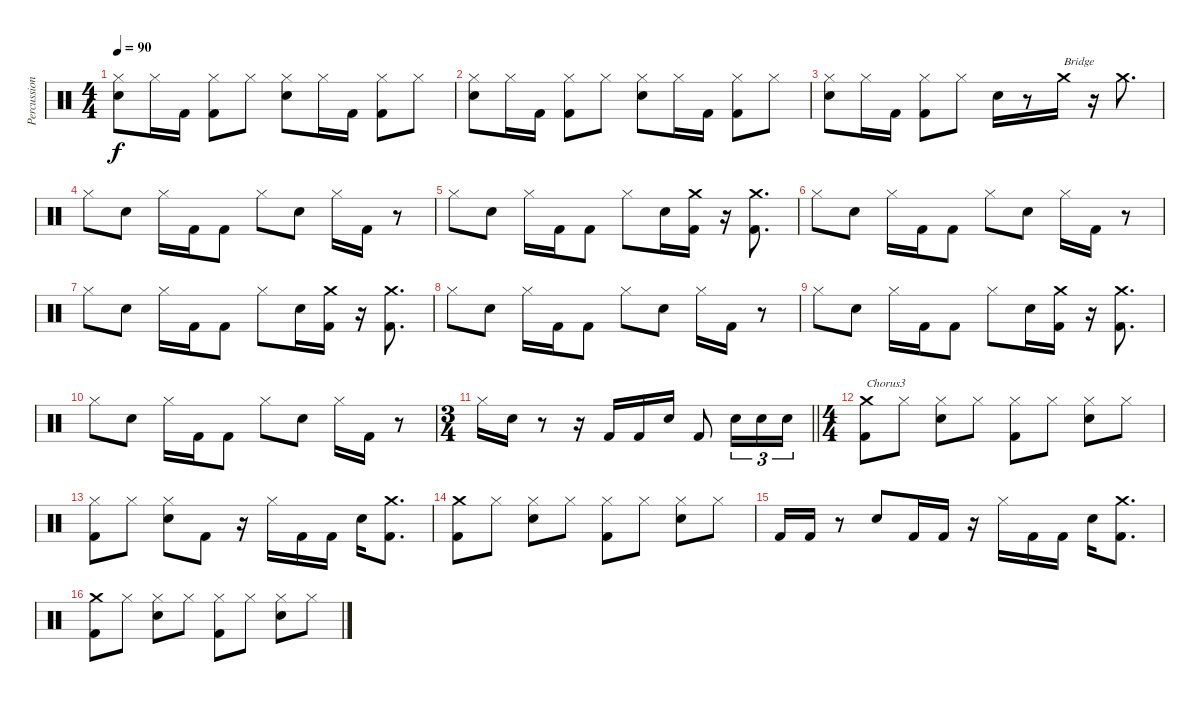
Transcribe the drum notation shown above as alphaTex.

\track ("Percussion" "Percussion") {instrument percussion}
\staff {score}
\articulation defaults
\ts (4 4)
\tempo 90
\clef neutral
\ks c
("Hi-Hat (closed)" "Snare (hit) 2").8{dy f} "Hi-Hat (closed)".16 "Kick (hit) 2".16 ("Hi-Hat (closed)" "Kick (hit) 2").8 "Hi-Hat (closed)".8 ("Hi-Hat (closed)" "Snare (hit) 2").8 "Hi-Hat (closed)".16 "Kick (hit) 2".16 ("Hi-Hat (closed)" "Kick (hit) 2").8 "Hi-Hat (closed)".8 |
("Hi-Hat (closed)" "Snare (hit) 2").8 "Hi-Hat (closed)".16 "Kick (hit) 2".16 ("Hi-Hat (closed)" "Kick (hit) 2").8 "Hi-Hat (closed)".8 ("Hi-Hat (closed)" "Snare (hit) 2").8 "Hi-Hat (closed)".16 "Kick (hit) 2".16 ("Hi-Hat (closed)" "Kick (hit) 2").8 "Hi-Hat (closed)".8 |
("Hi-Hat (closed)" "Snare (hit) 2").8 "Hi-Hat (closed)".16 "Kick (hit) 2".16 ("Hi-Hat (closed)" "Kick (hit) 2").8 "Hi-Hat (closed)".8 "Snare (hit) 2".16 r.8 "Crash medium (hit)".16{txt "Bridge"} r.16 "Crash medium (hit)".8{d} |
"Hi-Hat (closed)".8 "Snare (hit) 2".8 "Hi-Hat (closed)".16 "Kick (hit) 2".16 "Kick (hit) 2".8 "Hi-Hat (closed)".8 "Snare (hit) 2".8 "Hi-Hat (closed)".16 "Kick (hit) 2".16 r.8 |
"Hi-Hat (closed)".8 "Snare (hit) 2".8 "Hi-Hat (closed)".16 "Kick (hit) 2".16 "Kick (hit) 2".8 "Hi-Hat (closed)".8 "Snare (hit) 2".16 ("Crash medium (hit)" "Kick (hit) 2").16 r.16 ("Crash medium (hit)" "Kick (hit) 2").8{d} |
"Hi-Hat (closed)".8 "Snare (hit) 2".8 "Hi-Hat (closed)".16 "Kick (hit) 2".16 "Kick (hit) 2".8 "Hi-Hat (closed)".8 "Snare (hit) 2".8 "Hi-Hat (closed)".16 "Kick (hit) 2".16 r.8 |
"Hi-Hat (closed)".8 "Snare (hit) 2".8 "Hi-Hat (closed)".16 "Kick (hit) 2".16 "Kick (hit) 2".8 "Hi-Hat (closed)".8 "Snare (hit) 2".16 ("Crash medium (hit)" "Kick (hit) 2").16 r.16 ("Crash medium (hit)" "Kick (hit) 2").8{d} |
"Hi-Hat (closed)".8 "Snare (hit) 2".8 "Hi-Hat (closed)".16 "Kick (hit) 2".16 "Kick (hit) 2".8 "Hi-Hat (closed)".8 "Snare (hit) 2".8 "Hi-Hat (closed)".16 "Kick (hit) 2".16 r.8 |
"Hi-Hat (closed)".8 "Snare (hit) 2".8 "Hi-Hat (closed)".16 "Kick (hit) 2".16 "Kick (hit) 2".8 "Hi-Hat (closed)".8 "Snare (hit) 2".16 ("Crash medium (hit)" "Kick (hit) 2").16 r.16 ("Crash medium (hit)" "Kick (hit) 2").8{d} |
"Hi-Hat (closed)".8 "Snare (hit) 2".8 "Hi-Hat (closed)".16 "Kick (hit) 2".16 "Kick (hit) 2".8 "Hi-Hat (closed)".8 "Snare (hit) 2".8 "Hi-Hat (closed)".16 "Kick (hit) 2".16 r.8 |
\ts (3 4)
\barLineRight lightlight "Hi-Hat (closed)".16 "Snare (hit) 2".16
r.8 r.16 "Kick (hit) 2".16 "Kick (hit) 2".16 "Snare (hit) 2".16 "Kick (hit) 2".8 "Snare (hit) 2".16{tu (3 2)} "Snare (hit) 2".16{tu (3 2)} "Snare (hit) 2".16{tu (3 2)} |
\ts (4 4)
("Crash medium (hit)" "Kick (hit) 2").8{txt "Chorus3"} "Hi-Hat (closed)".8 ("Hi-Hat (closed)" "Snare (hit) 2").8 "Hi-Hat (closed)".8 ("Hi-Hat (closed)" "Kick (hit) 2").8 "Hi-Hat (closed)".8 ("Hi-Hat (closed)" "Snare (hit) 2").8 "Hi-Hat (closed)".8 |
("Hi-Hat (closed)" "Kick (hit) 2").8 "Hi-Hat (closed)".8 ("Hi-Hat (closed)" "Snare (hit) 2").8 "Kick (hit) 2".8 r.16 "Hi-Hat (closed)".16 "Kick (hit) 2".16 "Kick (hit) 2".16 "Snare (hit) 2".16 ("Crash medium (hit)" "Kick (hit) 2").8{d} |
("Crash medium (hit)" "Kick (hit) 2").8 "Hi-Hat (closed)".8 ("Hi-Hat (closed)" "Snare (hit) 2").8 "Hi-Hat (closed)".8 ("Hi-Hat (closed)" "Kick (hit) 2").8 "Hi-Hat (closed)".8 ("Hi-Hat (closed)" "Snare (hit) 2").8 "Hi-Hat (closed)".8 |
"Kick (hit) 2".16 "Kick (hit) 2".16 r.8 "Snare (hit) 2".8 "Kick (hit) 2".16 "Kick (hit) 2".16 r.16 "Hi-Hat (closed)".16 "Kick (hit) 2".16 "Kick (hit) 2".16 "Snare (hit) 2".16 ("Crash medium (hit)" "Kick (hit) 2").8{d} |
("Crash medium (hit)" "Kick (hit) 2").8 "Hi-Hat (closed)".8 ("Hi-Hat (closed)" "Snare (hit) 2").8 "Hi-Hat (closed)".8 ("Hi-Hat (closed)" "Kick (hit) 2").8 "Hi-Hat (closed)".8 ("Hi-Hat (closed)" "Snare (hit) 2").8 "Hi-Hat (closed)".8
